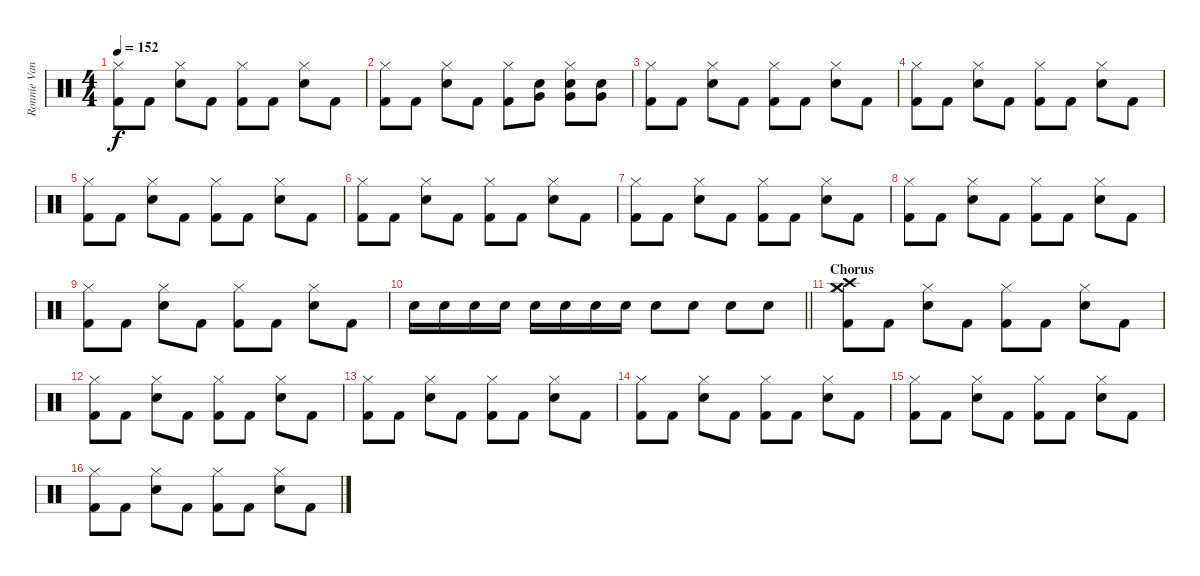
\track ("Ronnie Vannucci Jr." "Ronnie Van") {instrument percussion}
\staff
\articulation defaults
\ts (4 4)
\tempo 152
\clef neutral
\ks c
("Hi-Hat (closed)" "Kick (hit) 2").8{dy f} "Kick (hit) 2".8 ("Hi-Hat (closed)" "Electric Snare (hit)").8 "Kick (hit) 2".8 ("Hi-Hat (closed)" "Kick (hit) 2").8 "Kick (hit) 2".8 ("Hi-Hat (closed)" "Electric Snare (hit)").8 "Kick (hit) 2".8 |
("Hi-Hat (closed)" "Kick (hit) 2").8 "Kick (hit) 2".8 ("Hi-Hat (closed)" "Electric Snare (hit)").8 "Kick (hit) 2".8 ("Hi-Hat (closed)" "Kick (hit) 2").8 ("Very Low Tom (hit)" "Electric Snare (hit)").8 ("Hi-Hat (closed)" "Very Low Tom (hit)" "Electric Snare (hit)").8 ("Very Low Tom (hit)" "Electric Snare (hit)").8 |
("Hi-Hat (closed)" "Kick (hit) 2").8 "Kick (hit) 2".8 ("Hi-Hat (closed)" "Electric Snare (hit)").8 "Kick (hit) 2".8 ("Hi-Hat (closed)" "Kick (hit) 2").8 "Kick (hit) 2".8 ("Hi-Hat (closed)" "Electric Snare (hit)").8 "Kick (hit) 2".8 |
("Hi-Hat (closed)" "Kick (hit) 2").8 "Kick (hit) 2".8 ("Hi-Hat (closed)" "Electric Snare (hit)").8 "Kick (hit) 2".8 ("Hi-Hat (closed)" "Kick (hit) 2").8 "Kick (hit) 2".8 ("Hi-Hat (closed)" "Electric Snare (hit)").8 "Kick (hit) 2".8 |
("Hi-Hat (closed)" "Kick (hit) 2").8 "Kick (hit) 2".8 ("Hi-Hat (closed)" "Electric Snare (hit)").8 "Kick (hit) 2".8 ("Hi-Hat (closed)" "Kick (hit) 2").8 "Kick (hit) 2".8 ("Hi-Hat (closed)" "Electric Snare (hit)").8 "Kick (hit) 2".8 |
("Hi-Hat (closed)" "Kick (hit) 2").8 "Kick (hit) 2".8 ("Hi-Hat (closed)" "Electric Snare (hit)").8 "Kick (hit) 2".8 ("Hi-Hat (closed)" "Kick (hit) 2").8 "Kick (hit) 2".8 ("Hi-Hat (closed)" "Electric Snare (hit)").8 "Kick (hit) 2".8 |
("Hi-Hat (closed)" "Kick (hit) 2").8 "Kick (hit) 2".8 ("Hi-Hat (closed)" "Electric Snare (hit)").8 "Kick (hit) 2".8 ("Hi-Hat (closed)" "Kick (hit) 2").8 "Kick (hit) 2".8 ("Hi-Hat (closed)" "Electric Snare (hit)").8 "Kick (hit) 2".8 |
("Hi-Hat (closed)" "Kick (hit) 2").8 "Kick (hit) 2".8 ("Hi-Hat (closed)" "Electric Snare (hit)").8 "Kick (hit) 2".8 ("Hi-Hat (closed)" "Kick (hit) 2").8 "Kick (hit) 2".8 ("Hi-Hat (closed)" "Electric Snare (hit)").8 "Kick (hit) 2".8 |
("Hi-Hat (closed)" "Kick (hit) 2").8 "Kick (hit) 2".8 ("Hi-Hat (closed)" "Electric Snare (hit)").8 "Kick (hit) 2".8 ("Hi-Hat (closed)" "Kick (hit) 2").8 "Kick (hit) 2".8 ("Hi-Hat (closed)" "Electric Snare (hit)").8 "Kick (hit) 2".8 |
\barLineRight lightlight "Electric Snare (hit)".16 "Electric Snare (hit)".16 "Electric Snare (hit)".16 "Electric Snare (hit)".16 "Electric Snare (hit)".16 "Electric Snare (hit)".16 "Electric Snare (hit)".16 "Electric Snare (hit)".16 "Electric Snare (hit)".8 "Electric Snare (hit)".8 "Electric Snare (hit)".8 "Electric Snare (hit)".8
|
\section ("" "Chorus")
("Crash high (hit)" "Crash medium (hit)" "Hi-Hat (closed)" "Kick (hit) 2").8 "Kick (hit) 2".8 ("Hi-Hat (closed)" "Electric Snare (hit)").8 "Kick (hit) 2".8 ("Hi-Hat (closed)" "Kick (hit) 2").8 "Kick (hit) 2".8 ("Hi-Hat (closed)" "Electric Snare (hit)").8 "Kick (hit) 2".8 |
("Hi-Hat (closed)" "Kick (hit) 2").8 "Kick (hit) 2".8 ("Hi-Hat (closed)" "Electric Snare (hit)").8 "Kick (hit) 2".8 ("Hi-Hat (closed)" "Kick (hit) 2").8 "Kick (hit) 2".8 ("Hi-Hat (closed)" "Electric Snare (hit)").8 "Kick (hit) 2".8 |
("Hi-Hat (closed)" "Kick (hit) 2").8 "Kick (hit) 2".8 ("Hi-Hat (closed)" "Electric Snare (hit)").8 "Kick (hit) 2".8 ("Hi-Hat (closed)" "Kick (hit) 2").8 "Kick (hit) 2".8 ("Hi-Hat (closed)" "Electric Snare (hit)").8 "Kick (hit) 2".8 |
("Hi-Hat (closed)" "Kick (hit) 2").8 "Kick (hit) 2".8 ("Hi-Hat (closed)" "Electric Snare (hit)").8 "Kick (hit) 2".8 ("Hi-Hat (closed)" "Kick (hit) 2").8 "Kick (hit) 2".8 ("Hi-Hat (closed)" "Electric Snare (hit)").8 "Kick (hit) 2".8 |
("Hi-Hat (closed)" "Kick (hit) 2").8 "Kick (hit) 2".8 ("Hi-Hat (closed)" "Electric Snare (hit)").8 "Kick (hit) 2".8 ("Hi-Hat (closed)" "Kick (hit) 2").8 "Kick (hit) 2".8 ("Hi-Hat (closed)" "Electric Snare (hit)").8 "Kick (hit) 2".8 |
("Hi-Hat (closed)" "Kick (hit) 2").8 "Kick (hit) 2".8 ("Hi-Hat (closed)" "Electric Snare (hit)").8 "Kick (hit) 2".8 ("Hi-Hat (closed)" "Kick (hit) 2").8 "Kick (hit) 2".8 ("Hi-Hat (closed)" "Electric Snare (hit)").8 "Kick (hit) 2".8
